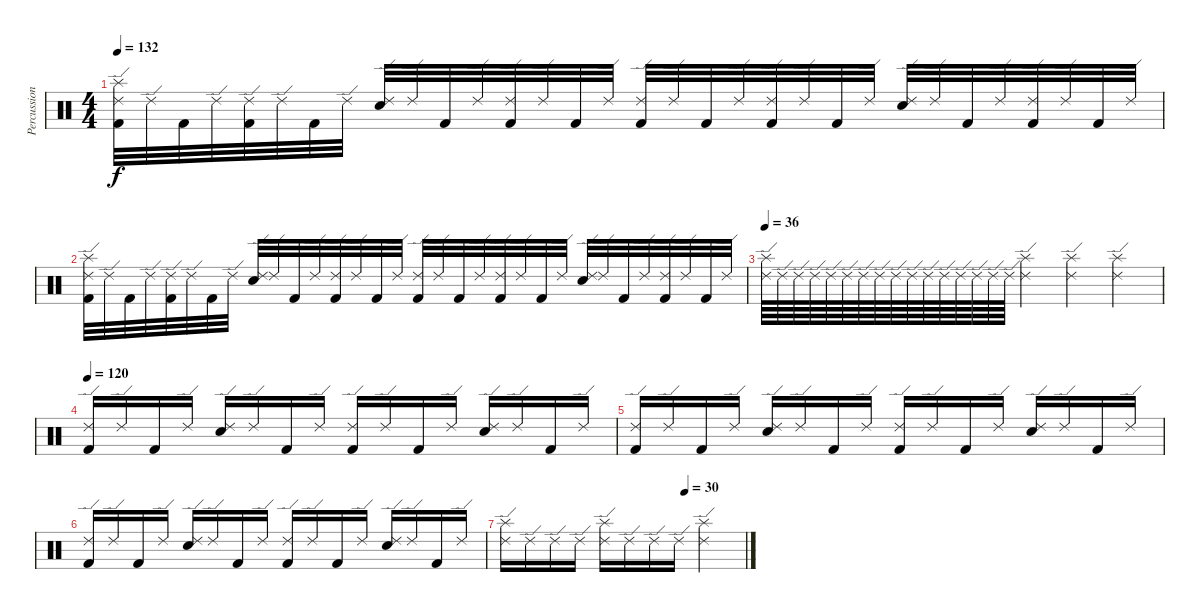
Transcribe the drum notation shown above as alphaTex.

\track ("Percussion" "Percussion") {instrument percussion}
\staff {score}
\articulation defaults
\ts (4 4)
\tempo 132
\clef neutral
\ks c
("Ride (edge) 2" "Kick (hit) 2" "Splash (hit)").32{dy f} "Ride (edge) 2".32 "Kick (hit) 2".32 "Ride (edge) 2".32 ("Kick (hit) 2" "Ride (edge) 2").32 "Ride (edge) 2".32 "Kick (hit) 2".32 "Ride (edge) 2".32 ("Ride (edge) 2" "Snare (hit) 2").32 "Ride (edge) 2".32 "Kick (hit) 2".32 "Ride (edge) 2".32 ("Kick (hit) 2" "Ride (edge) 2").32 "Ride (edge) 2".32 "Kick (hit) 2".32 "Ride (edge) 2".32 ("Ride (edge) 2" "Kick (hit) 2").32 "Ride (edge) 2".32 "Kick (hit) 2".32 "Ride (edge) 2".32 ("Kick (hit) 2" "Ride (edge) 2").32 "Ride (edge) 2".32 "Kick (hit) 2".32 "Ride (edge) 2".32 ("Snare (hit) 2" "Ride (edge) 2").32 "Ride (edge) 2".32 "Kick (hit) 2".32 "Ride (edge) 2".32 ("Kick (hit) 2" "Ride (edge) 2").32 "Ride (edge) 2".32 "Kick (hit) 2".32 "Ride (edge) 2".32 |
("Ride (edge) 2" "Kick (hit) 2" "Splash (hit)").32 "Ride (edge) 2".32 "Kick (hit) 2".32 "Ride (edge) 2".32 ("Kick (hit) 2" "Ride (edge) 2").32 "Ride (edge) 2".32 "Kick (hit) 2".32 "Ride (edge) 2".32 ("Ride (edge) 2" "Snare (hit) 2").32 "Ride (edge) 2".32 "Kick (hit) 2".32 "Ride (edge) 2".32 ("Kick (hit) 2" "Ride (edge) 2").32 "Ride (edge) 2".32 "Kick (hit) 2".32 "Ride (edge) 2".32 ("Ride (edge) 2" "Kick (hit) 2").32 "Ride (edge) 2".32 "Kick (hit) 2".32 "Ride (edge) 2".32 ("Kick (hit) 2" "Ride (edge) 2").32 "Ride (edge) 2".32 "Kick (hit) 2".32 "Ride (edge) 2".32 ("Snare (hit) 2" "Ride (edge) 2").32 "Ride (edge) 2".32 "Kick (hit) 2".32 "Ride (edge) 2".32 ("Kick (hit) 2" "Ride (edge) 2").32 "Ride (edge) 2".32 "Kick (hit) 2".32 "Ride (edge) 2".32 |
\tempo 36
("Ride (edge) 2" "Splash (hit)").64 "Ride (edge) 2".64 "Ride (edge) 2".64 "Ride (edge) 2".64 "Ride (edge) 2".64 "Ride (edge) 2".64 "Ride (edge) 2".64 "Ride (edge) 2".64 "Ride (edge) 2".64 "Ride (edge) 2".64 "Ride (edge) 2".64 "Ride (edge) 2".64 "Ride (edge) 2".64 "Ride (edge) 2".64 "Ride (edge) 2".64 "Ride (edge) 2".64 ("Ride (edge) 2" "Splash (hit)").4 ("Ride (edge) 2" "Splash (hit)").4 ("Ride (edge) 2" "Splash (hit)").4 |
\tempo 120
("Ride (edge) 2" "Kick (hit) 2").16 "Ride (edge) 2".16 "Kick (hit) 2".16 "Ride (edge) 2".16 ("Snare (hit) 2" "Ride (edge) 2").16 "Ride (edge) 2".16 "Kick (hit) 2".16 "Ride (edge) 2".16 ("Ride (edge) 2" "Kick (hit) 2").16 "Ride (edge) 2".16 "Kick (hit) 2".16 "Ride (edge) 2".16 ("Snare (hit) 2" "Ride (edge) 2").16 "Ride (edge) 2".16 "Kick (hit) 2".16 "Ride (edge) 2".16 |
("Ride (edge) 2" "Kick (hit) 2").16 "Ride (edge) 2".16 "Kick (hit) 2".16 "Ride (edge) 2".16 ("Snare (hit) 2" "Ride (edge) 2").16 "Ride (edge) 2".16 "Kick (hit) 2".16 "Ride (edge) 2".16 ("Ride (edge) 2" "Kick (hit) 2").16 "Ride (edge) 2".16 "Kick (hit) 2".16 "Ride (edge) 2".16 ("Snare (hit) 2" "Ride (edge) 2").16 "Ride (edge) 2".16 "Kick (hit) 2".16 "Ride (edge) 2".16 |
("Ride (edge) 2" "Kick (hit) 2").16 "Ride (edge) 2".16 "Kick (hit) 2".16 "Ride (edge) 2".16 ("Snare (hit) 2" "Ride (edge) 2").16 "Ride (edge) 2".16 "Kick (hit) 2".16 "Ride (edge) 2".16 ("Ride (edge) 2" "Kick (hit) 2").16 "Ride (edge) 2".16 "Kick (hit) 2".16 "Ride (edge) 2".16 ("Snare (hit) 2" "Ride (edge) 2").16 "Ride (edge) 2".16 "Kick (hit) 2".16 "Ride (edge) 2".16 |
\tempo (30 0.75)
("Ride (edge) 2" "Splash (hit)").16 "Ride (edge) 2".16 "Ride (edge) 2".16 "Ride (edge) 2".16 ("Ride (edge) 2" "Splash (hit)").16 "Ride (edge) 2".16 "Ride (edge) 2".16 "Ride (edge) 2".16 ("Ride (edge) 2" "Splash (hit)").2
